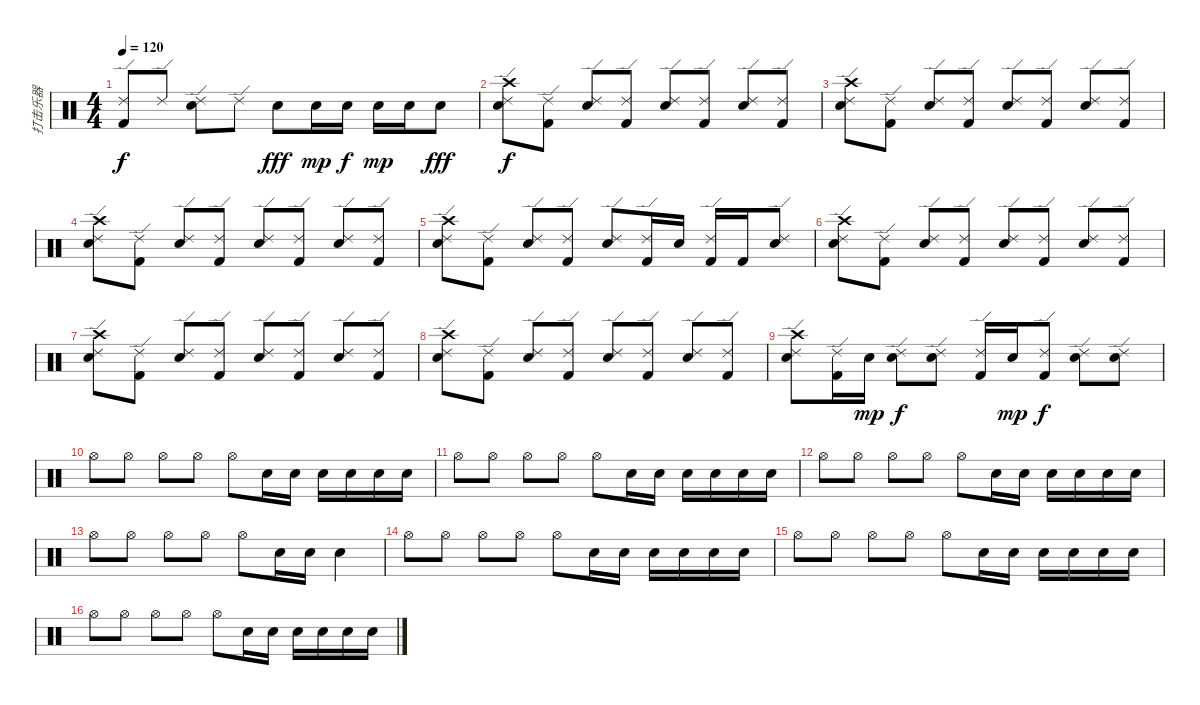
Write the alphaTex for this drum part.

\track ("打击乐器" "打击乐器") {instrument percussion}
\staff {score}
\articulation defaults
\ts (4 4)
\tempo 120
\clef neutral
\ks c
("Ride (edge) 2" "Kick (hit) 2").8{dy f} "Ride (edge) 2".8 ("Ride (edge) 2" "Electric Snare (hit)").8 "Ride (edge) 2".8 "Electric Snare (hit)".8{dy fff} "Electric Snare (hit)".16{dy mp} "Electric Snare (hit)".16{dy f} "Electric Snare (hit)".16{dy mp} "Electric Snare (hit)".16 "Electric Snare (hit)".8{dy fff} |
("Ride (edge) 2" "Crash high (hit)" "Electric Snare (hit)").8{dy f} ("Ride (edge) 2" "Kick (hit) 2").8 ("Ride (edge) 2" "Electric Snare (hit)").8 ("Ride (edge) 2" "Kick (hit) 2").8 ("Ride (edge) 2" "Electric Snare (hit)").8 ("Ride (edge) 2" "Kick (hit) 2").8 ("Ride (edge) 2" "Electric Snare (hit)").8 ("Ride (edge) 2" "Kick (hit) 2").8 |
("Ride (edge) 2" "Crash high (hit)" "Electric Snare (hit)").8 ("Ride (edge) 2" "Kick (hit) 2").8 ("Ride (edge) 2" "Electric Snare (hit)").8 ("Ride (edge) 2" "Kick (hit) 2").8 ("Ride (edge) 2" "Electric Snare (hit)").8 ("Ride (edge) 2" "Kick (hit) 2").8 ("Ride (edge) 2" "Electric Snare (hit)").8 ("Ride (edge) 2" "Kick (hit) 2").8 |
("Ride (edge) 2" "Crash high (hit)" "Electric Snare (hit)").8 ("Ride (edge) 2" "Kick (hit) 2").8 ("Ride (edge) 2" "Electric Snare (hit)").8 ("Ride (edge) 2" "Kick (hit) 2").8 ("Ride (edge) 2" "Electric Snare (hit)").8 ("Ride (edge) 2" "Kick (hit) 2").8 ("Ride (edge) 2" "Electric Snare (hit)").8 ("Ride (edge) 2" "Kick (hit) 2").8 |
("Ride (edge) 2" "Crash high (hit)" "Electric Snare (hit)").8 ("Ride (edge) 2" "Kick (hit) 2").8 ("Ride (edge) 2" "Electric Snare (hit)").8 ("Ride (edge) 2" "Kick (hit) 2").8 ("Ride (edge) 2" "Electric Snare (hit)").8 ("Ride (edge) 2" "Kick (hit) 2").16 "Electric Snare (hit)".16 ("Ride (edge) 2" "Kick (hit) 2").16 "Kick (hit) 2".16 ("Ride (edge) 2" "Electric Snare (hit)").8 |
("Ride (edge) 2" "Crash high (hit)" "Electric Snare (hit)").8 ("Ride (edge) 2" "Kick (hit) 2").8 ("Ride (edge) 2" "Electric Snare (hit)").8 ("Ride (edge) 2" "Kick (hit) 2").8 ("Ride (edge) 2" "Electric Snare (hit)").8 ("Ride (edge) 2" "Kick (hit) 2").8 ("Ride (edge) 2" "Electric Snare (hit)").8 ("Ride (edge) 2" "Kick (hit) 2").8 |
("Ride (edge) 2" "Crash high (hit)" "Electric Snare (hit)").8 ("Ride (edge) 2" "Kick (hit) 2").8 ("Ride (edge) 2" "Electric Snare (hit)").8 ("Ride (edge) 2" "Kick (hit) 2").8 ("Ride (edge) 2" "Electric Snare (hit)").8 ("Ride (edge) 2" "Kick (hit) 2").8 ("Ride (edge) 2" "Electric Snare (hit)").8 ("Ride (edge) 2" "Kick (hit) 2").8 |
("Ride (edge) 2" "Crash high (hit)" "Electric Snare (hit)").8 ("Ride (edge) 2" "Kick (hit) 2").8 ("Ride (edge) 2" "Electric Snare (hit)").8 ("Ride (edge) 2" "Kick (hit) 2").8 ("Ride (edge) 2" "Electric Snare (hit)").8 ("Ride (edge) 2" "Kick (hit) 2").8 ("Ride (edge) 2" "Electric Snare (hit)").8 ("Ride (edge) 2" "Kick (hit) 2").8 |
("Ride (edge) 2" "Crash high (hit)" "Electric Snare (hit)").8 ("Ride (edge) 2" "Kick (hit) 2").16 "Electric Snare (hit)".16{dy mp} ("Ride (edge) 2" "Electric Snare (hit)").8{dy f} ("Ride (edge) 2" "Electric Snare (hit)").8 ("Ride (edge) 2" "Kick (hit) 2").16 "Electric Snare (hit)".16{dy mp} ("Ride (edge) 2" "Kick (hit) 2").8{dy f} ("Ride (edge) 2" "Electric Snare (hit)").8 ("Ride (edge) 2" "Electric Snare (hit)").8 |
"Hi-Hat (open)".8 "Hi-Hat (open)".8 "Hi-Hat (open)".8 "Hi-Hat (open)".8 "Hi-Hat (open)".8 "Electric Snare (hit)".16 "Electric Snare (hit)".16 "Electric Snare (hit)".16 "Electric Snare (hit)".16 "Electric Snare (hit)".16 "Electric Snare (hit)".16 |
"Hi-Hat (open)".8 "Hi-Hat (open)".8 "Hi-Hat (open)".8 "Hi-Hat (open)".8 "Hi-Hat (open)".8 "Electric Snare (hit)".16 "Electric Snare (hit)".16 "Electric Snare (hit)".16 "Electric Snare (hit)".16 "Electric Snare (hit)".16 "Electric Snare (hit)".16 |
"Hi-Hat (open)".8 "Hi-Hat (open)".8 "Hi-Hat (open)".8 "Hi-Hat (open)".8 "Hi-Hat (open)".8 "Electric Snare (hit)".16 "Electric Snare (hit)".16 "Electric Snare (hit)".16 "Electric Snare (hit)".16 "Electric Snare (hit)".16 "Electric Snare (hit)".16 |
"Hi-Hat (open)".8 "Hi-Hat (open)".8 "Hi-Hat (open)".8 "Hi-Hat (open)".8 "Hi-Hat (open)".8 "Electric Snare (hit)".16 "Electric Snare (hit)".16 "Electric Snare (hit)".4 |
"Hi-Hat (open)".8 "Hi-Hat (open)".8 "Hi-Hat (open)".8 "Hi-Hat (open)".8 "Hi-Hat (open)".8 "Electric Snare (hit)".16 "Electric Snare (hit)".16 "Electric Snare (hit)".16 "Electric Snare (hit)".16 "Electric Snare (hit)".16 "Electric Snare (hit)".16 |
"Hi-Hat (open)".8 "Hi-Hat (open)".8 "Hi-Hat (open)".8 "Hi-Hat (open)".8 "Hi-Hat (open)".8 "Electric Snare (hit)".16 "Electric Snare (hit)".16 "Electric Snare (hit)".16 "Electric Snare (hit)".16 "Electric Snare (hit)".16 "Electric Snare (hit)".16 |
"Hi-Hat (open)".8 "Hi-Hat (open)".8 "Hi-Hat (open)".8 "Hi-Hat (open)".8 "Hi-Hat (open)".8 "Electric Snare (hit)".16 "Electric Snare (hit)".16 "Electric Snare (hit)".16 "Electric Snare (hit)".16 "Electric Snare (hit)".16 "Electric Snare (hit)".16
